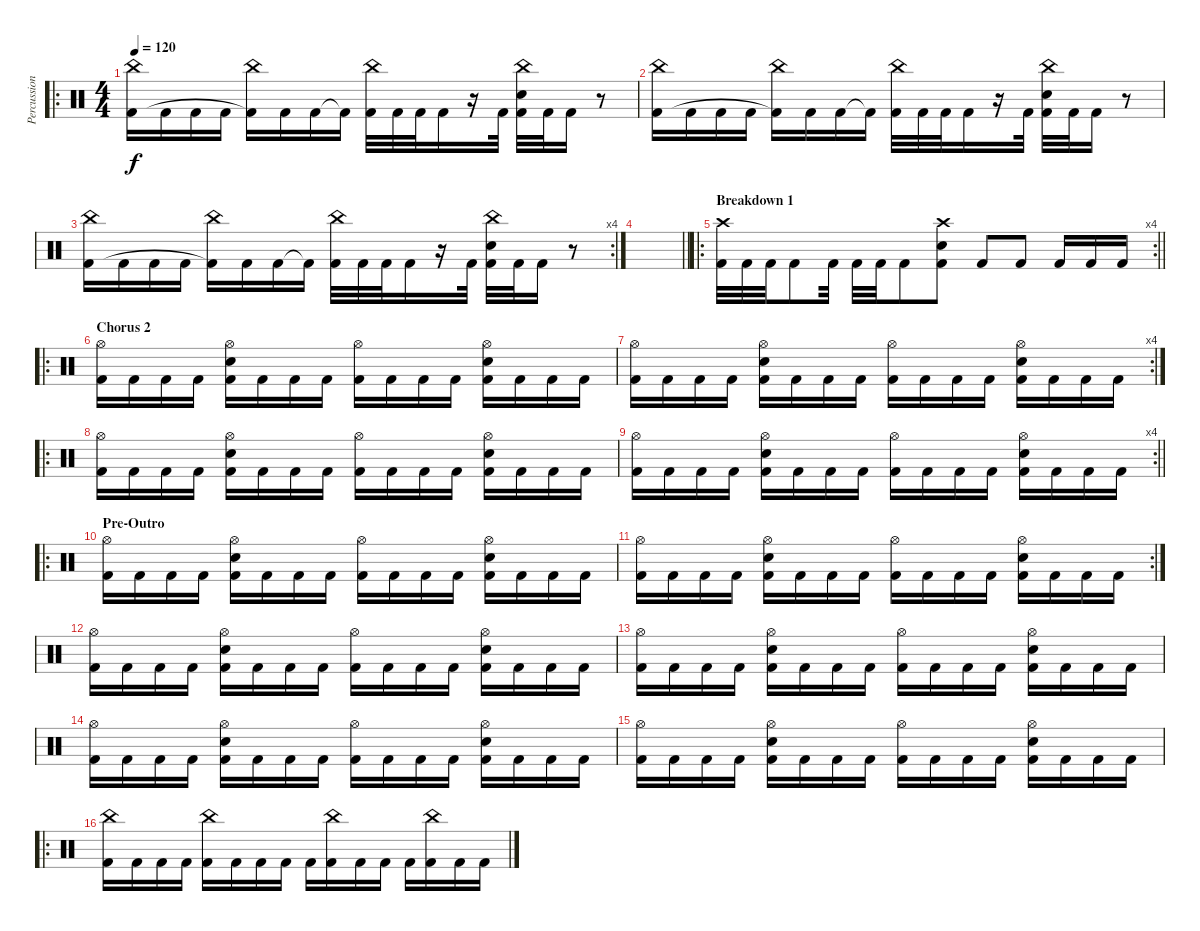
\track ("Percussion" "Percussion") {instrument percussion}
\staff {score}
\articulation defaults
\ro
\ts (4 4)
\tempo 120
\clef neutral
\ks c
("China (hit)" "Kick (hit) 2").16{dy f} "Kick (hit) 2".16 "Kick (hit) 2".16 "Kick (hit) 2".16 ("China (hit)" "Kick (hit) 2"{t}).16 "Kick (hit) 2".16 "Kick (hit) 2".16 "Kick (hit) 2"{t}.16 ("China (hit)" "Kick (hit) 2").32 "Kick (hit) 2".32 "Kick (hit) 2".32 "Kick (hit) 2".16 r.16 "Kick (hit) 2".32 ("China (hit)" "Electric Snare (hit)" "Kick (hit) 2").32 "Kick (hit) 2".32 "Kick (hit) 2".16 r.8 |
("China (hit)" "Kick (hit) 2").16 "Kick (hit) 2".16 "Kick (hit) 2".16 "Kick (hit) 2".16 ("China (hit)" "Kick (hit) 2"{t}).16 "Kick (hit) 2".16 "Kick (hit) 2".16 "Kick (hit) 2"{t}.16 ("China (hit)" "Kick (hit) 2").32 "Kick (hit) 2".32 "Kick (hit) 2".32 "Kick (hit) 2".16 r.16 "Kick (hit) 2".32 ("China (hit)" "Electric Snare (hit)" "Kick (hit) 2").32 "Kick (hit) 2".32 "Kick (hit) 2".16 r.8 |
\rc 4
("China (hit)" "Kick (hit) 2").16 "Kick (hit) 2".16 "Kick (hit) 2".16 "Kick (hit) 2".16 ("China (hit)" "Kick (hit) 2"{t}).16 "Kick (hit) 2".16 "Kick (hit) 2".16 "Kick (hit) 2"{t}.16 ("China (hit)" "Kick (hit) 2").32 "Kick (hit) 2".32 "Kick (hit) 2".32 "Kick (hit) 2".16 r.16 "Kick (hit) 2".32 ("China (hit)" "Electric Snare (hit)" "Kick (hit) 2").32 "Kick (hit) 2".32 "Kick (hit) 2".16 r.8 |
\barLineRight lightlight
|
\ro
\rc 4
\section ("" "Breakdown 1")
\barLineRight lightlight
("Crash high (hit)" "Kick (hit) 2").32 "Kick (hit) 2".32 "Kick (hit) 2".32 "Kick (hit) 2".8 "Kick (hit) 2".32 "Kick (hit) 2".32 "Kick (hit) 2".32 "Kick (hit) 2".8 ("Crash high (hit)" "Electric Snare (hit)" "Kick (hit) 2").8 "Kick (hit) 2".8 "Kick (hit) 2".8 "Kick (hit) 2".16 "Kick (hit) 2".16 "Kick (hit) 2".16 |
\ro
\section ("" "Chorus 2")
("Hi-Hat (open)" "Kick (hit) 2").16 "Kick (hit) 2".16 "Kick (hit) 2".16 "Kick (hit) 2".16 ("Hi-Hat (open)" "Electric Snare (hit)" "Kick (hit) 2").16 "Kick (hit) 2".16 "Kick (hit) 2".16 "Kick (hit) 2".16 ("Hi-Hat (open)" "Kick (hit) 2").16 "Kick (hit) 2".16 "Kick (hit) 2".16 "Kick (hit) 2".16 ("Hi-Hat (open)" "Electric Snare (hit)" "Kick (hit) 2").16 "Kick (hit) 2".16 "Kick (hit) 2".16 "Kick (hit) 2".16 |
\rc 4
("Hi-Hat (open)" "Kick (hit) 2").16 "Kick (hit) 2".16 "Kick (hit) 2".16 "Kick (hit) 2".16 ("Hi-Hat (open)" "Electric Snare (hit)" "Kick (hit) 2").16 "Kick (hit) 2".16 "Kick (hit) 2".16 "Kick (hit) 2".16 ("Hi-Hat (open)" "Kick (hit) 2").16 "Kick (hit) 2".16 "Kick (hit) 2".16 "Kick (hit) 2".16 ("Hi-Hat (open)" "Electric Snare (hit)" "Kick (hit) 2").16 "Kick (hit) 2".16 "Kick (hit) 2".16 "Kick (hit) 2".16 |
\ro
("Hi-Hat (open)" "Kick (hit) 2").16 "Kick (hit) 2".16 "Kick (hit) 2".16 "Kick (hit) 2".16 ("Hi-Hat (open)" "Electric Snare (hit)" "Kick (hit) 2").16 "Kick (hit) 2".16 "Kick (hit) 2".16 "Kick (hit) 2".16 ("Hi-Hat (open)" "Kick (hit) 2").16 "Kick (hit) 2".16 "Kick (hit) 2".16 "Kick (hit) 2".16 ("Hi-Hat (open)" "Electric Snare (hit)" "Kick (hit) 2").16 "Kick (hit) 2".16 "Kick (hit) 2".16 "Kick (hit) 2".16 |
\rc 4
\barLineRight lightlight
("Hi-Hat (open)" "Kick (hit) 2").16 "Kick (hit) 2".16 "Kick (hit) 2".16 "Kick (hit) 2".16 ("Hi-Hat (open)" "Electric Snare (hit)" "Kick (hit) 2").16 "Kick (hit) 2".16 "Kick (hit) 2".16 "Kick (hit) 2".16 ("Hi-Hat (open)" "Kick (hit) 2").16 "Kick (hit) 2".16 "Kick (hit) 2".16 "Kick (hit) 2".16 ("Hi-Hat (open)" "Electric Snare (hit)" "Kick (hit) 2").16 "Kick (hit) 2".16 "Kick (hit) 2".16 "Kick (hit) 2".16 |
\ro
\section ("" "Pre-Outro")
("Hi-Hat (open)" "Kick (hit) 2").16 "Kick (hit) 2".16 "Kick (hit) 2".16 "Kick (hit) 2".16 ("Hi-Hat (open)" "Electric Snare (hit)" "Kick (hit) 2").16 "Kick (hit) 2".16 "Kick (hit) 2".16 "Kick (hit) 2".16 ("Hi-Hat (open)" "Kick (hit) 2").16 "Kick (hit) 2".16 "Kick (hit) 2".16 "Kick (hit) 2".16 ("Hi-Hat (open)" "Electric Snare (hit)" "Kick (hit) 2").16 "Kick (hit) 2".16 "Kick (hit) 2".16 "Kick (hit) 2".16 |
\rc 2
("Hi-Hat (open)" "Kick (hit) 2").16 "Kick (hit) 2".16 "Kick (hit) 2".16 "Kick (hit) 2".16 ("Hi-Hat (open)" "Electric Snare (hit)" "Kick (hit) 2").16 "Kick (hit) 2".16 "Kick (hit) 2".16 "Kick (hit) 2".16 ("Hi-Hat (open)" "Kick (hit) 2").16 "Kick (hit) 2".16 "Kick (hit) 2".16 "Kick (hit) 2".16 ("Hi-Hat (open)" "Electric Snare (hit)" "Kick (hit) 2").16 "Kick (hit) 2".16 "Kick (hit) 2".16 "Kick (hit) 2".16 |
("Hi-Hat (open)" "Kick (hit) 2").16 "Kick (hit) 2".16 "Kick (hit) 2".16 "Kick (hit) 2".16 ("Hi-Hat (open)" "Electric Snare (hit)" "Kick (hit) 2").16 "Kick (hit) 2".16 "Kick (hit) 2".16 "Kick (hit) 2".16 ("Hi-Hat (open)" "Kick (hit) 2").16 "Kick (hit) 2".16 "Kick (hit) 2".16 "Kick (hit) 2".16 ("Hi-Hat (open)" "Electric Snare (hit)" "Kick (hit) 2").16 "Kick (hit) 2".16 "Kick (hit) 2".16 "Kick (hit) 2".16 |
("Hi-Hat (open)" "Kick (hit) 2").16 "Kick (hit) 2".16 "Kick (hit) 2".16 "Kick (hit) 2".16 ("Hi-Hat (open)" "Electric Snare (hit)" "Kick (hit) 2").16 "Kick (hit) 2".16 "Kick (hit) 2".16 "Kick (hit) 2".16 ("Hi-Hat (open)" "Kick (hit) 2").16 "Kick (hit) 2".16 "Kick (hit) 2".16 "Kick (hit) 2".16 ("Hi-Hat (open)" "Electric Snare (hit)" "Kick (hit) 2").16 "Kick (hit) 2".16 "Kick (hit) 2".16 "Kick (hit) 2".16 |
("Hi-Hat (open)" "Kick (hit) 2").16 "Kick (hit) 2".16 "Kick (hit) 2".16 "Kick (hit) 2".16 ("Hi-Hat (open)" "Electric Snare (hit)" "Kick (hit) 2").16 "Kick (hit) 2".16 "Kick (hit) 2".16 "Kick (hit) 2".16 ("Hi-Hat (open)" "Kick (hit) 2").16 "Kick (hit) 2".16 "Kick (hit) 2".16 "Kick (hit) 2".16 ("Hi-Hat (open)" "Electric Snare (hit)" "Kick (hit) 2").16 "Kick (hit) 2".16 "Kick (hit) 2".16 "Kick (hit) 2".16 |
("Hi-Hat (open)" "Kick (hit) 2").16 "Kick (hit) 2".16 "Kick (hit) 2".16 "Kick (hit) 2".16 ("Hi-Hat (open)" "Electric Snare (hit)" "Kick (hit) 2").16 "Kick (hit) 2".16 "Kick (hit) 2".16 "Kick (hit) 2".16 ("Hi-Hat (open)" "Kick (hit) 2").16 "Kick (hit) 2".16 "Kick (hit) 2".16 "Kick (hit) 2".16 ("Hi-Hat (open)" "Electric Snare (hit)" "Kick (hit) 2").16 "Kick (hit) 2".16 "Kick (hit) 2".16 "Kick (hit) 2".16 |
\ro
("China (hit)" "Kick (hit) 2").16 "Kick (hit) 2".16 "Kick (hit) 2".16 "Kick (hit) 2".16 ("China (hit)" "Kick (hit) 2").16 "Kick (hit) 2".16 "Kick (hit) 2".16 "Kick (hit) 2".16 "Kick (hit) 2".16 ("China (hit)" "Kick (hit) 2").16 "Kick (hit) 2".16 "Kick (hit) 2".16 "Kick (hit) 2".16 ("China (hit)" "Kick (hit) 2").16 "Kick (hit) 2".16 "Kick (hit) 2".16
